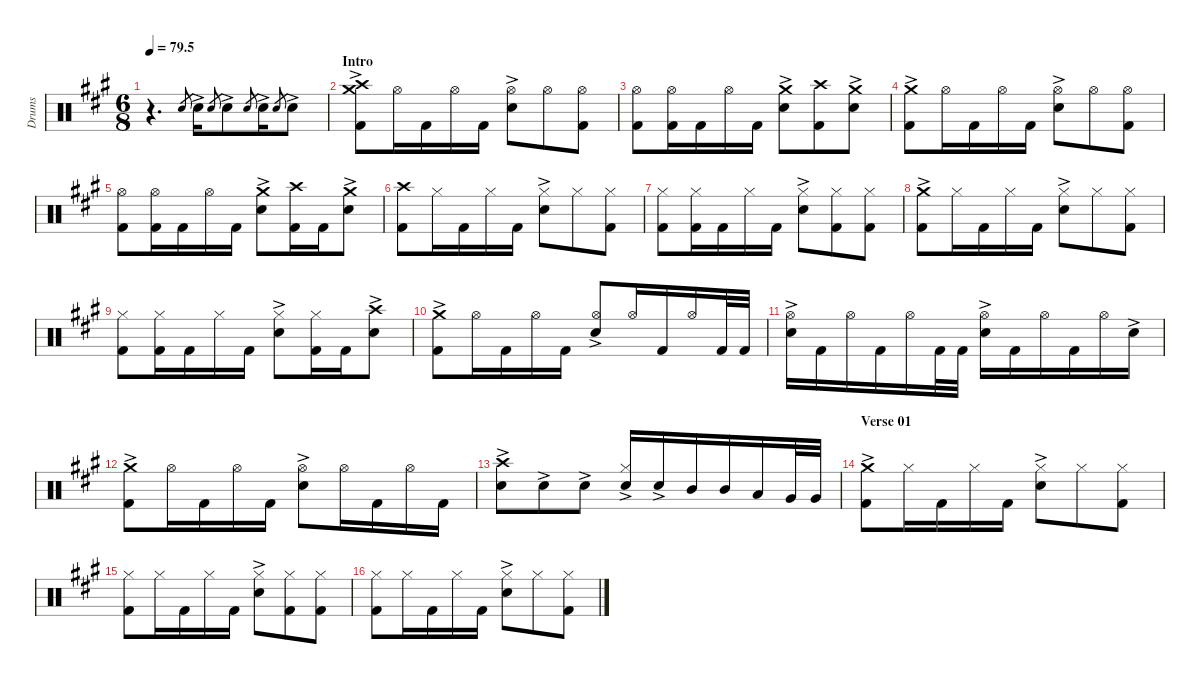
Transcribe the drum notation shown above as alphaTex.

\defaultSystemsLayout 4
\hideDynamics
\bracketExtendMode nobrackets
\otherSystemsTrackNameOrientation horizontal
\track ("Drumkit (don't unmute)" "Drums") {mute instrument percussion}
\staff {score}
\articulation defaults
\ts (6 8)
\tempo
79.5
\accidentals auto
\clef neutral
\ottava regular
\simile none
\scale
0.474178
\ks a
r.4{d dy mp beam Down} "Snare (hit) 2"{acc forcenatural}.8{gr beam Up} "Snare (hit) 2"{ac acc forcenatural}.16{dy f beam Down} "Snare (hit) 2"{acc forcenatural}.8{gr dy mp beam Up} "Snare (hit) 2"{ac acc forcenatural}.8{dy f beam Down} "Snare (hit) 2"{acc forcenatural}.8{gr dy mp beam Up} "Snare (hit) 2"{ac acc forcenatural}.16{dy f beam Down} "Snare (hit) 2"{acc forcenatural}.8{gr dy mp beam Up} "Snare (hit) 2"{ac acc forcenatural}.8{dy f beam Down} |
\section ("" "Intro")
\scale
0.262911 ("Crash medium (hit)"{ac acc forcenatural} "Crash high (hit)"{acc forcenatural} "Kick (hit) 2"{acc forcenatural}).8{beam Down} "Hi-Hat (open)"{acc forcenatural}.16{beam Down} "Kick (hit) 2"{acc forcenatural}.16{beam Down} "Hi-Hat (open)"{acc forcenatural}.16{beam Down} "Kick (hit) 2"{acc forcenatural}.16{beam Down} ("Hi-Hat (open)"{acc forcenatural} "Snare (hit) 2"{ac acc forcenatural}).8{beam Down} "Hi-Hat (open)"{acc forcenatural}.8{beam Down} ("Hi-Hat (open)"{acc forcenatural} "Kick (hit) 2"{acc forcenatural}).8{beam Down} |
\scale
0.262911 ("Hi-Hat (open)"{acc forcenatural} "Kick (hit) 2"{acc forcenatural}).8{beam Down} ("Hi-Hat (open)"{acc forcenatural} "Kick (hit) 2"{acc forcenatural}).16{beam Down} "Kick (hit) 2"{acc forcenatural}.16{beam Down} "Hi-Hat (open)"{acc forcenatural}.16{beam Down} "Kick (hit) 2"{acc forcenatural}.16{beam Down} ("Crash medium (hit)"{ac acc forcenatural} "Snare (hit) 2"{ac acc forcenatural}).8{beam Down} ("Crash high (hit)"{acc forcenatural} "Kick (hit) 2"{acc forcenatural}).8{beam Down} ("Crash medium (hit)"{ac acc forcenatural} "Snare (hit) 2"{ac acc forcenatural}).8{beam Down} |
\scale
0.333333 ("Crash medium (hit)"{ac acc forcenatural} "Kick (hit) 2"{acc forcenatural}).8{beam Down} "Hi-Hat (open)"{acc forcenatural}.16{beam Down} "Kick (hit) 2"{acc forcenatural}.16{beam Down} "Hi-Hat (open)"{acc forcenatural}.16{beam Down} "Kick (hit) 2"{acc forcenatural}.16{beam Down} ("Hi-Hat (open)"{acc forcenatural} "Snare (hit) 2"{ac acc forcenatural}).8{beam Down} "Hi-Hat (open)"{acc forcenatural}.8{beam Down} ("Hi-Hat (open)"{acc forcenatural} "Kick (hit) 2"{acc forcenatural}).8{beam Down} |
\scale
0.307582 ("Hi-Hat (open)"{acc forcenatural} "Kick (hit) 2"{acc forcenatural}).8{beam Down} ("Hi-Hat (open)"{acc forcenatural} "Kick (hit) 2"{acc forcenatural}).16{beam Down} "Kick (hit) 2"{acc forcenatural}.16{beam Down} "Hi-Hat (open)"{acc forcenatural}.16{beam Down} "Kick (hit) 2"{acc forcenatural}.16{beam Down} ("Crash medium (hit)"{ac acc forcenatural} "Snare (hit) 2"{ac acc forcenatural}).8{beam Down} ("Crash high (hit)"{acc forcenatural} "Kick (hit) 2"{acc forcenatural}).16{beam Down} "Kick (hit) 2"{acc forcenatural}.16{beam Down} ("Crash medium (hit)"{ac acc forcenatural} "Snare (hit) 2"{ac acc forcenatural}).8{beam Down} |
\scale
0.358865 ("Kick (hit) 2"{acc forcenatural} "Crash high (hit)"{acc forcenatural}).8{beam Down} "Hi-Hat (closed)"{acc forcenatural}.16{beam Down} "Kick (hit) 2"{acc forcenatural}.16{beam Down} "Hi-Hat (closed)"{acc forcenatural}.16{beam Down} "Kick (hit) 2"{acc forcenatural}.16{beam Down} ("Hi-Hat (closed)"{acc forcenatural} "Snare (hit) 2"{ac acc forcenatural}).8{beam Down} "Hi-Hat (closed)"{acc forcenatural}.8{beam Down} ("Hi-Hat (closed)"{acc forcenatural} "Kick (hit) 2"{acc forcenatural}).8{beam Down} |
\scale
0.333333 ("Hi-Hat (closed)"{acc forcenatural} "Kick (hit) 2"{acc forcenatural}).8{beam Down} ("Hi-Hat (closed)"{acc forcenatural} "Kick (hit) 2"{acc forcenatural}).16{beam Down} "Kick (hit) 2"{acc forcenatural}.16{beam Down} "Hi-Hat (closed)"{acc forcenatural}.16{beam Down} "Kick (hit) 2"{acc forcenatural}.16{beam Down} ("Hi-Hat (closed)"{acc forcenatural} "Snare (hit) 2"{ac acc forcenatural}).8{beam Down} ("Hi-Hat (closed)"{acc forcenatural} "Kick (hit) 2"{acc forcenatural}).8{beam Down} ("Hi-Hat (closed)"{acc forcenatural} "Kick (hit) 2"{acc forcenatural}).8{beam Down} |
\scale
0.333333 ("Crash medium (hit)"{ac acc forcenatural} "Kick (hit) 2"{acc forcenatural}).8{beam Down} "Hi-Hat (closed)"{acc forcenatural}.16{beam Down} "Kick (hit) 2"{acc forcenatural}.16{beam Down} "Hi-Hat (closed)"{acc forcenatural}.16{beam Down} "Kick (hit) 2"{acc forcenatural}.16{beam Down} ("Hi-Hat (closed)"{acc forcenatural} "Snare (hit) 2"{ac acc forcenatural}).8{beam Down} "Hi-Hat (closed)"{acc forcenatural}.8{beam Down} ("Hi-Hat (closed)"{acc forcenatural} "Kick (hit) 2"{acc forcenatural}).8{beam Down} |
\scale
0.333333 ("Hi-Hat (closed)"{acc forcenatural} "Kick (hit) 2"{acc forcenatural}).8{beam Down} ("Hi-Hat (closed)"{acc forcenatural} "Kick (hit) 2"{acc forcenatural}).16{beam Down} "Kick (hit) 2"{acc forcenatural}.16{beam Down} "Hi-Hat (closed)"{acc forcenatural}.16{beam Down} "Kick (hit) 2"{acc forcenatural}.16{beam Down} ("Hi-Hat (closed)"{acc forcenatural} "Snare (hit) 2"{ac acc forcenatural}).8{beam Down} ("Hi-Hat (closed)"{acc forcenatural} "Kick (hit) 2"{acc forcenatural}).16{beam Down} "Kick (hit) 2"{acc forcenatural}.16{beam Down} ("Snare (hit) 2"{ac acc forcenatural} "Crash high (hit)"{acc forcenatural}).8{beam Down} |
\scale
0.333333 ("Crash medium (hit)"{ac acc forcenatural} "Kick (hit) 2"{acc forcenatural}).8{beam Down} "Hi-Hat (open)"{acc forcenatural}.16{beam Down} "Kick (hit) 2"{acc forcenatural}.16{beam Down} "Hi-Hat (open)"{acc forcenatural}.16{beam Down} "Kick (hit) 2"{acc forcenatural}.16{beam Down} ("Hi-Hat (open)"{acc forcenatural} "Snare (hit) 2"{ac acc forcenatural}).8{beam Up} "Hi-Hat (open)"{acc forcenatural}.16{beam Up} "Kick (hit) 2"{acc forcenatural}.16{beam Up} "Hi-Hat (open)"{acc forcenatural}.16{beam Up} "Kick (hit) 2"{acc forcenatural}.32{beam Up} "Kick (hit) 2"{acc forcenatural}.32{beam Up} |
\scale
0.333333 ("Hi-Hat (open)"{acc forcenatural} "Snare (hit) 2"{ac acc forcenatural}).16{beam Down} "Kick (hit) 2"{acc forcenatural}.16{beam Down} "Hi-Hat (open)"{acc forcenatural}.16{beam Down} "Kick (hit) 2"{acc forcenatural}.16{beam Down} "Hi-Hat (open)"{acc forcenatural}.16{beam Down} "Kick (hit) 2"{acc forcenatural}.32{beam Down} "Kick (hit) 2"{acc forcenatural}.32{beam Down} ("Hi-Hat (open)"{acc forcenatural} "Snare (hit) 2"{ac acc forcenatural}).16{beam Down} "Kick (hit) 2"{acc forcenatural}.16{beam Down} "Hi-Hat (open)"{acc forcenatural}.16{beam Down} "Kick (hit) 2"{acc forcenatural}.16{beam Down} "Hi-Hat (open)"{acc forcenatural}.16{beam Down} "Snare (hit) 2"{ac acc forcenatural}.16{beam Down} |
\scale
0.333333 ("Crash medium (hit)"{ac acc forcenatural} "Kick (hit) 2"{acc forcenatural}).8{beam Down} "Hi-Hat (open)"{acc forcenatural}.16{beam Down} "Kick (hit) 2"{acc forcenatural}.16{beam Down} "Hi-Hat (open)"{acc forcenatural}.16{beam Down} "Kick (hit) 2"{acc forcenatural}.16{beam Down} ("Hi-Hat (open)"{acc forcenatural} "Snare (hit) 2"{ac acc forcenatural}).8{beam Down} "Hi-Hat (open)"{acc forcenatural}.16{beam Down} "Kick (hit) 2"{acc forcenatural}.16{beam Down} "Hi-Hat (open)"{acc forcenatural}.16{beam Down} "Kick (hit) 2"{acc forcenatural}.16{beam Down} |
\scale
0.333333 ("Snare (hit) 2"{ac acc forcenatural} "Crash high (hit)"{acc forcenatural}).8{beam Down} "Snare (hit) 2"{ac acc forcenatural}.8{beam Down} "Snare (hit) 2"{ac acc forcenatural}.8{beam Down} ("Snare (hit) 2"{ac acc forcenatural} "Hi-Hat (closed)"{acc forcenatural}).16{beam Up} "Snare (hit) 2"{ac acc forcenatural}.16{beam Up} "Mid Tom (hit)"{acc forcenatural}.16{beam Up} "Mid Tom (hit)"{acc forcenatural}.16{beam Up} "Low Tom (hit)"{acc forcenatural}.16{beam Up} "Very Low Tom (hit)"{acc forcenatural}.32{beam Up} "Very Low Tom (hit)"{acc forcenatural}.32{beam Up} |
\section ("" "Verse 01")
\scale
0.333333 ("Crash medium (hit)"{ac acc forcenatural} "Kick (hit) 2"{acc forcenatural}).8{beam Down} "Hi-Hat (closed)"{acc forcenatural}.16{beam Down} "Kick (hit) 2"{acc forcenatural}.16{beam Down} "Hi-Hat (closed)"{acc forcenatural}.16{beam Down} "Kick (hit) 2"{acc forcenatural}.16{beam Down} ("Hi-Hat (closed)"{acc forcenatural} "Snare (hit) 2"{ac acc forcenatural}).8{beam Down} "Hi-Hat (closed)"{acc forcenatural}.8{beam Down} ("Hi-Hat (closed)"{acc forcenatural} "Kick (hit) 2"{acc forcenatural}).8{beam Down} |
\scale
0.333333 ("Hi-Hat (closed)"{acc forcenatural} "Kick (hit) 2"{acc forcenatural}).8{beam Down} "Hi-Hat (closed)"{acc forcenatural}.16{beam Down} "Kick (hit) 2"{acc forcenatural}.16{beam Down} "Hi-Hat (closed)"{acc forcenatural}.16{beam Down} "Kick (hit) 2"{acc forcenatural}.16{beam Down} ("Hi-Hat (closed)"{acc forcenatural} "Snare (hit) 2"{ac acc forcenatural}).8{beam Down} ("Hi-Hat (closed)"{acc forcenatural} "Kick (hit) 2"{acc forcenatural}).8{beam Down} ("Hi-Hat (closed)"{acc forcenatural} "Kick (hit) 2"{acc forcenatural}).8{beam Down} |
\scale
0.333333 ("Kick (hit) 2"{acc forcenatural} "Hi-Hat (closed)"{acc forcenatural}).8{beam Down} "Hi-Hat (closed)"{acc forcenatural}.16{beam Down} "Kick (hit) 2"{acc forcenatural}.16{beam Down} "Hi-Hat (closed)"{acc forcenatural}.16{beam Down} "Kick (hit) 2"{acc forcenatural}.16{beam Down} ("Hi-Hat (closed)"{acc forcenatural} "Snare (hit) 2"{ac acc forcenatural}).8{beam Down} "Hi-Hat (closed)"{acc forcenatural}.8{beam Down} ("Hi-Hat (closed)"{acc forcenatural} "Kick (hit) 2"{acc forcenatural}).8{beam Down}
